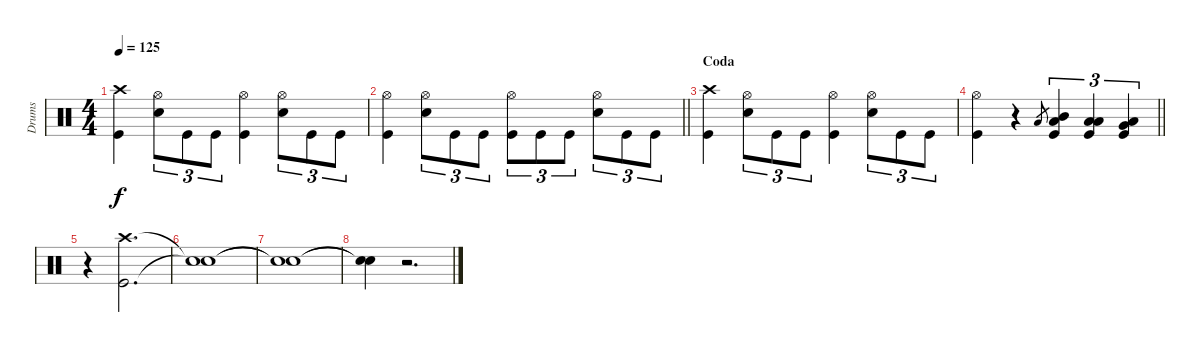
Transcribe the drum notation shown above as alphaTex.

\track ("Drums" "Drums") {instrument percussion}
\staff {score}
\articulation defaults
\ts (4 4)
\tempo 125
\clef neutral
\ks c
("Crash high (hit)" "Kick (hit)").4{dy f} ("Hi-Hat (open)" "Electric Snare (hit)").8{tu (3 2)} "Kick (hit)".8{tu (3 2)} "Kick (hit)".8{tu (3 2)} ("Hi-Hat (open)" "Kick (hit)").4 ("Hi-Hat (open)" "Electric Snare (hit)").8{tu (3 2)} "Kick (hit)".8{tu (3 2)} "Kick (hit)".8{tu (3 2)} |
\barLineRight lightlight
("Hi-Hat (open)" "Kick (hit)").4 ("Hi-Hat (open)" "Electric Snare (hit)").8{tu (3 2)} "Kick (hit)".8{tu (3 2)} "Kick (hit)".8{tu (3 2)} ("Hi-Hat (open)" "Kick (hit)").8{tu (3 2)} "Kick (hit)".8{tu (3 2)} "Kick (hit)".8{tu (3 2)} ("Hi-Hat (open)" "Electric Snare (hit)").8{tu (3 2)} "Kick (hit)".8{tu (3 2)} "Kick (hit)".8{tu (3 2)} |
\section ("" "Coda")
("Crash high (hit)" "Kick (hit)").4 ("Hi-Hat (open)" "Electric Snare (hit)").8{tu (3 2)} "Kick (hit)".8{tu (3 2)} "Kick (hit)".8{tu (3 2)} ("Hi-Hat (open)" "Kick (hit)").4 ("Hi-Hat (open)" "Electric Snare (hit)").8{tu (3 2)} "Kick (hit)".8{tu (3 2)} "Kick (hit)".8{tu (3 2)} |
\barLineRight lightlight
("Hi-Hat (open)" "Kick (hit)").4 r.4 "Low Floor Tom (hit)".8{gr} ("Mid Tom (hit)" "Low Floor Tom (hit)" "Kick (hit)").4{tu (3 2)} ("Low Tom (hit)" "Low Floor Tom (hit)" "Kick (hit)").4{tu (3 2)} ("Very Low Tom (hit)" "Low Floor Tom (hit)" "Kick (hit)").4{tu (3 2)} |
r.4 ("Crash high (hit)" "Kick (hit)").2{d} |
("Snare (hit)"{t} "Snare (hit)"{t}).1 |
("Snare (hit)"{t} "Snare (hit)"{t}).1 |
("Snare (hit)"{t} "Snare (hit)"{t}).4 r.2{d}
